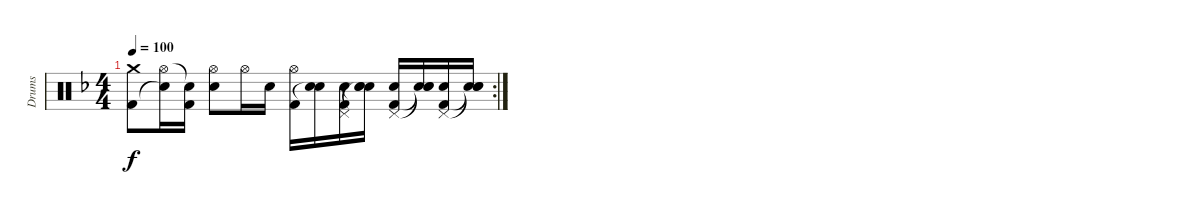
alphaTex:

\track ("Drums" "Drums") {instrument percussion}
\staff {score}
\articulation defaults
\rc 2
\ts (4 4)
\tempo 100
\clef neutral
\ks dminor
("Crash medium (hit)" "Kick (hit) 2").8{dy f} ("Hi-Hat (open)" "Snare (hit)"{t}).16 ("Snare (hit)"{t} "Kick (hit) 2").16 ("Hi-Hat (open)" "Electric Snare (hit)").8 "Hi-Hat (open)".16 "Electric Snare (hit)".16 ("Hi-Hat (open)" "Kick (hit) 2").16 ("Electric Snare (hit)" "Snare (hit)"{t}).16 ("Pedal Hi-Hat (hit)" "Electric Snare (hit)" "Kick (hit) 2").16 ("Snare (hit)"{t} "Electric Snare (hit)" "Snare (hit)"{t}).16 ("Pedal Hi-Hat (hit)" "Electric Snare (hit)" "Kick (hit) 2").16 ("Snare (hit)"{t} "Electric Snare (hit)" "Snare (hit)"{t}).16 ("Pedal Hi-Hat (hit)" "Electric Snare (hit)" "Kick (hit) 2").16 ("Snare (hit)"{t} "Electric Snare (hit)" "Snare (hit)"{t}).16
